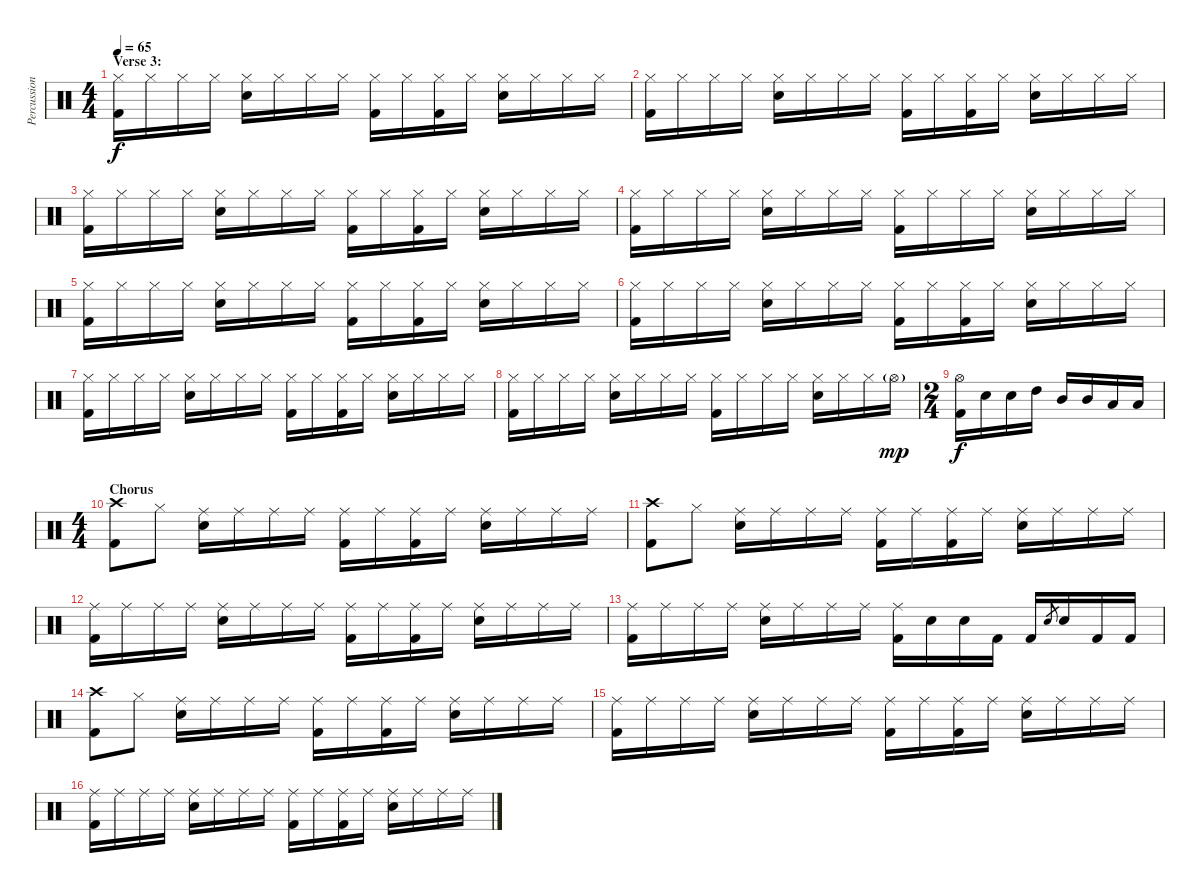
\track ("Percussion" "Percussion") {instrument percussion}
\staff {score}
\articulation defaults
\ts (4 4)
\section ("" "Verse 3:")
\tempo 65
\clef neutral
\ks c
("Hi-Hat (closed)" "Kick (hit) 2").16{dy f} "Hi-Hat (closed)".16 "Hi-Hat (closed)".16 "Hi-Hat (closed)".16 ("Hi-Hat (closed)" "Electric Snare (hit)").16 "Hi-Hat (closed)".16 "Hi-Hat (closed)".16 "Hi-Hat (closed)".16 ("Hi-Hat (closed)" "Kick (hit) 2").16 "Hi-Hat (closed)".16 ("Hi-Hat (closed)" "Kick (hit) 2").16 "Hi-Hat (closed)".16 ("Hi-Hat (closed)" "Electric Snare (hit)").16 "Hi-Hat (closed)".16 "Hi-Hat (closed)".16 "Hi-Hat (closed)".16 |
("Hi-Hat (closed)" "Kick (hit) 2").16 "Hi-Hat (closed)".16 "Hi-Hat (closed)".16 "Hi-Hat (closed)".16 ("Hi-Hat (closed)" "Electric Snare (hit)").16 "Hi-Hat (closed)".16 "Hi-Hat (closed)".16 "Hi-Hat (closed)".16 ("Hi-Hat (closed)" "Kick (hit) 2").16 "Hi-Hat (closed)".16 ("Hi-Hat (closed)" "Kick (hit) 2").16 "Hi-Hat (closed)".16 ("Hi-Hat (closed)" "Electric Snare (hit)").16 "Hi-Hat (closed)".16 "Hi-Hat (closed)".16 "Hi-Hat (closed)".16 |
("Hi-Hat (closed)" "Kick (hit) 2").16 "Hi-Hat (closed)".16 "Hi-Hat (closed)".16 "Hi-Hat (closed)".16 ("Hi-Hat (closed)" "Electric Snare (hit)").16 "Hi-Hat (closed)".16 "Hi-Hat (closed)".16 "Hi-Hat (closed)".16 ("Hi-Hat (closed)" "Kick (hit) 2").16 "Hi-Hat (closed)".16 ("Hi-Hat (closed)" "Kick (hit) 2").16 "Hi-Hat (closed)".16 ("Hi-Hat (closed)" "Electric Snare (hit)").16 "Hi-Hat (closed)".16 "Hi-Hat (closed)".16 "Hi-Hat (closed)".16 |
("Hi-Hat (closed)" "Kick (hit) 2").16 "Hi-Hat (closed)".16 "Hi-Hat (closed)".16 "Hi-Hat (closed)".16 ("Hi-Hat (closed)" "Electric Snare (hit)").16 "Hi-Hat (closed)".16 "Hi-Hat (closed)".16 "Hi-Hat (closed)".16 ("Hi-Hat (closed)" "Kick (hit) 2").16 "Hi-Hat (closed)".16 "Hi-Hat (closed)".16 "Hi-Hat (closed)".16 ("Hi-Hat (closed)" "Electric Snare (hit)").16 "Hi-Hat (closed)".16 "Hi-Hat (closed)".16 "Hi-Hat (closed)".16 |
("Hi-Hat (closed)" "Kick (hit) 2").16 "Hi-Hat (closed)".16 "Hi-Hat (closed)".16 "Hi-Hat (closed)".16 ("Hi-Hat (closed)" "Electric Snare (hit)").16 "Hi-Hat (closed)".16 "Hi-Hat (closed)".16 "Hi-Hat (closed)".16 ("Hi-Hat (closed)" "Kick (hit) 2").16 "Hi-Hat (closed)".16 ("Hi-Hat (closed)" "Kick (hit) 2").16 "Hi-Hat (closed)".16 ("Hi-Hat (closed)" "Electric Snare (hit)").16 "Hi-Hat (closed)".16 "Hi-Hat (closed)".16 "Hi-Hat (closed)".16 |
("Hi-Hat (closed)" "Kick (hit) 2").16 "Hi-Hat (closed)".16 "Hi-Hat (closed)".16 "Hi-Hat (closed)".16 ("Hi-Hat (closed)" "Electric Snare (hit)").16 "Hi-Hat (closed)".16 "Hi-Hat (closed)".16 "Hi-Hat (closed)".16 ("Hi-Hat (closed)" "Kick (hit) 2").16 "Hi-Hat (closed)".16 ("Hi-Hat (closed)" "Kick (hit) 2").16 "Hi-Hat (closed)".16 ("Hi-Hat (closed)" "Electric Snare (hit)").16 "Hi-Hat (closed)".16 "Hi-Hat (closed)".16 "Hi-Hat (closed)".16 |
("Hi-Hat (closed)" "Kick (hit) 2").16 "Hi-Hat (closed)".16 "Hi-Hat (closed)".16 "Hi-Hat (closed)".16 ("Hi-Hat (closed)" "Electric Snare (hit)").16 "Hi-Hat (closed)".16 "Hi-Hat (closed)".16 "Hi-Hat (closed)".16 ("Hi-Hat (closed)" "Kick (hit) 2").16 "Hi-Hat (closed)".16 ("Hi-Hat (closed)" "Kick (hit) 2").16 "Hi-Hat (closed)".16 ("Hi-Hat (closed)" "Electric Snare (hit)").16 "Hi-Hat (closed)".16 "Hi-Hat (closed)".16 "Hi-Hat (closed)".16 |
("Hi-Hat (closed)" "Kick (hit) 2").16 "Hi-Hat (closed)".16 "Hi-Hat (closed)".16 "Hi-Hat (closed)".16 ("Hi-Hat (closed)" "Electric Snare (hit)").16 "Hi-Hat (closed)".16 "Hi-Hat (closed)".16 "Hi-Hat (closed)".16 ("Hi-Hat (closed)" "Kick (hit) 2").16 "Hi-Hat (closed)".16 "Hi-Hat (closed)".16 "Hi-Hat (closed)".16 ("Hi-Hat (closed)" "Electric Snare (hit)").16 "Hi-Hat (closed)".16 "Hi-Hat (closed)".16 "Hi-Hat (open)"{g}.16{dy mp} |
\ts (2 4)
("Hi-Hat (open)" "Kick (hit) 2").16{dy f} "Electric Snare (hit)".16 "Electric Snare (hit)".16 "High Tom (hit)".16 "Mid Tom (hit)".16 "Mid Tom (hit)".16 "Low Tom (hit)".16 "Low Tom (hit)".16 |
\ts (4 4)
\section ("" "Chorus")
("Crash high (hit)" "Kick (hit) 2").8 "Hi-Hat (closed)".8 ("Ride (middle)" "Electric Snare (hit)").16 "Ride (middle)".16 "Ride (middle)".16 "Ride (middle)".16 ("Ride (middle)" "Kick (hit) 2").16 "Ride (middle)".16 ("Ride (middle)" "Kick (hit) 2").16 "Ride (middle)".16 ("Ride (middle)" "Electric Snare (hit)").16 "Ride (middle)".16 "Ride (middle)".16 "Ride (middle)".16 |
("Crash high (hit)" "Kick (hit) 2").8 "Hi-Hat (closed)".8 ("Ride (middle)" "Electric Snare (hit)").16 "Ride (middle)".16 "Ride (middle)".16 "Ride (middle)".16 ("Ride (middle)" "Kick (hit) 2").16 "Ride (middle)".16 ("Ride (middle)" "Kick (hit) 2").16 "Ride (middle)".16 ("Ride (middle)" "Electric Snare (hit)").16 "Ride (middle)".16 "Ride (middle)".16 "Ride (middle)".16 |
("Ride (middle)" "Kick (hit) 2").16 "Ride (middle)".16 "Ride (middle)".16 "Ride (middle)".16 ("Ride (middle)" "Electric Snare (hit)").16 "Ride (middle)".16 "Ride (middle)".16 "Ride (middle)".16 ("Ride (middle)" "Kick (hit) 2").16 "Ride (middle)".16 ("Ride (middle)" "Kick (hit) 2").16 "Ride (middle)".16 ("Ride (middle)" "Electric Snare (hit)").16 "Ride (middle)".16 "Ride (middle)".16 "Ride (middle)".16 |
("Ride (middle)" "Kick (hit) 2").16 "Ride (middle)".16 "Ride (middle)".16 "Ride (middle)".16 ("Ride (middle)" "Electric Snare (hit)").16 "Ride (middle)".16 "Ride (middle)".16 "Ride (middle)".16 ("Ride (middle)" "Kick (hit) 2").16 "Electric Snare (hit)".16 "Electric Snare (hit)".16 "Kick (hit) 2".16 "Kick (hit) 2".16 "Electric Snare (hit)".8{gr} "Electric Snare (hit)".16 "Kick (hit) 2".16 "Kick (hit) 2".16 |
("Crash high (hit)" "Kick (hit) 2").8 "Hi-Hat (closed)".8 ("Ride (middle)" "Electric Snare (hit)").16 "Ride (middle)".16 "Ride (middle)".16 "Ride (middle)".16 ("Ride (middle)" "Kick (hit) 2").16 "Ride (middle)".16 ("Ride (middle)" "Kick (hit) 2").16 "Ride (middle)".16 ("Ride (middle)" "Electric Snare (hit)").16 "Ride (middle)".16 "Ride (middle)".16 "Ride (middle)".16 |
("Ride (middle)" "Kick (hit) 2").16 "Ride (middle)".16 "Ride (middle)".16 "Ride (middle)".16 ("Ride (middle)" "Electric Snare (hit)").16 "Ride (middle)".16 "Ride (middle)".16 "Ride (middle)".16 ("Ride (middle)" "Kick (hit) 2").16 "Ride (middle)".16 ("Ride (middle)" "Kick (hit) 2").16 "Ride (middle)".16 ("Ride (middle)" "Electric Snare (hit)").16 "Ride (middle)".16 "Ride (middle)".16 "Ride (middle)".16 |
("Ride (middle)" "Kick (hit) 2").16 "Ride (middle)".16 "Ride (middle)".16 "Ride (middle)".16 ("Ride (middle)" "Electric Snare (hit)").16 "Ride (middle)".16 "Ride (middle)".16 "Ride (middle)".16 ("Ride (middle)" "Kick (hit) 2").16 "Ride (middle)".16 ("Ride (middle)" "Kick (hit) 2").16 "Ride (middle)".16 ("Ride (middle)" "Electric Snare (hit)").16 "Ride (middle)".16 "Ride (middle)".16 "Ride (middle)".16
